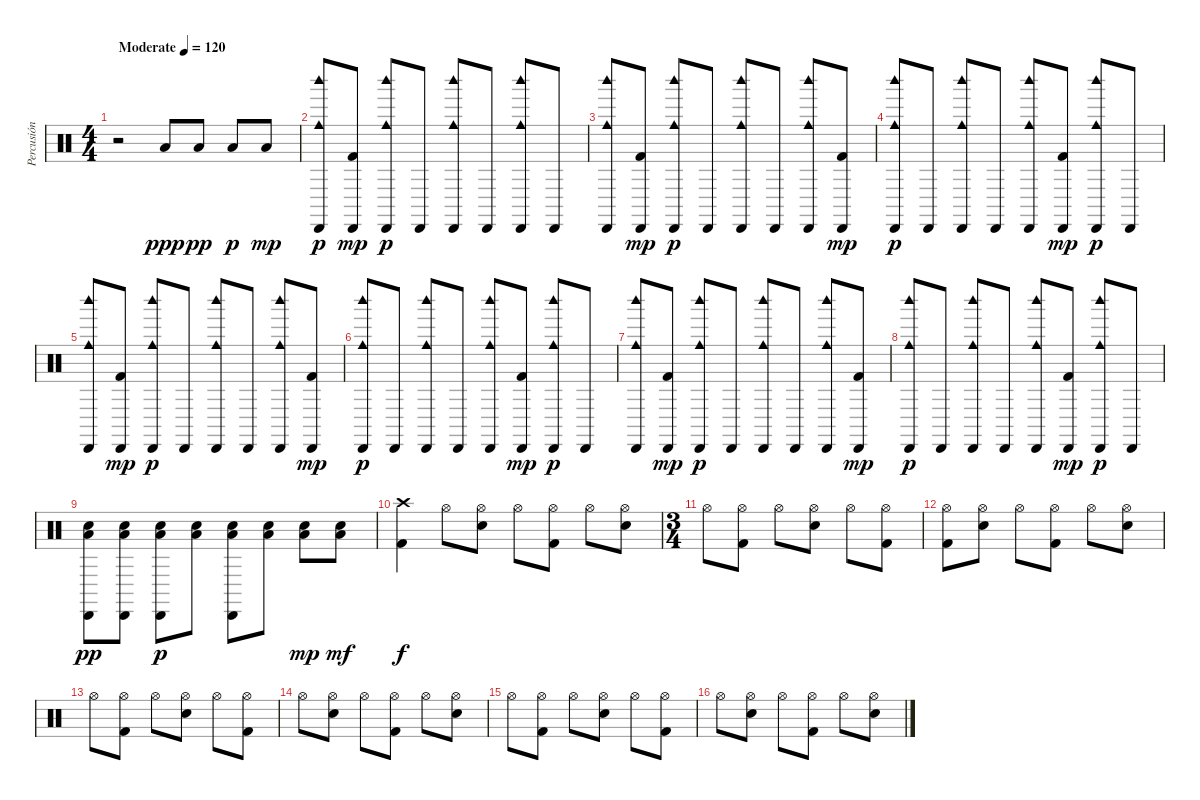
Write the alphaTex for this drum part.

\track ("Percusión" "Percusión") {instrument percussion}
\staff {score}
\articulation defaults
\ts (4 4)
\tempo (120 "Moderate")
\clef neutral
\ks c
r.2{dy ppp} "Low Tom (hit)".8 "Low Tom (hit)".8{dy pp} "Low Tom (hit)".8{dy p} "Low Tom (hit)".8{dy mp} |
("Woodblock high (hit)" "Cowbell medium (hit)" "Cabasa (hit)").8{dy p} ("Cabasa (hit)" "Kick (hit) 2").8{dy mp} ("Woodblock high (hit)" "Cowbell medium (hit)" "Cabasa (hit)").8{dy p} "Cabasa (hit)".8 ("Woodblock high (hit)" "Cowbell medium (hit)" "Cabasa (hit)").8 "Cabasa (hit)".8 ("Woodblock high (hit)" "Cowbell medium (hit)" "Cabasa (hit)").8 "Cabasa (hit)".8 |
("Woodblock high (hit)" "Cowbell medium (hit)" "Cabasa (hit)").8 ("Cabasa (hit)" "Kick (hit) 2").8{dy mp} ("Woodblock high (hit)" "Cowbell medium (hit)" "Cabasa (hit)").8{dy p} "Cabasa (hit)".8 ("Woodblock high (hit)" "Cowbell medium (hit)" "Cabasa (hit)").8 "Cabasa (hit)".8 ("Woodblock high (hit)" "Cowbell medium (hit)" "Cabasa (hit)").8 ("Cabasa (hit)" "Kick (hit) 2").8{dy mp} |
("Woodblock high (hit)" "Cowbell medium (hit)" "Cabasa (hit)").8{dy p} "Cabasa (hit)".8 ("Woodblock high (hit)" "Cowbell medium (hit)" "Cabasa (hit)").8 "Cabasa (hit)".8 ("Woodblock high (hit)" "Cowbell medium (hit)" "Cabasa (hit)").8 ("Cabasa (hit)" "Kick (hit) 2").8{dy mp} ("Woodblock high (hit)" "Cowbell medium (hit)" "Cabasa (hit)").8{dy p} "Cabasa (hit)".8 |
("Woodblock high (hit)" "Cowbell medium (hit)" "Cabasa (hit)").8 ("Cabasa (hit)" "Kick (hit) 2").8{dy mp} ("Woodblock high (hit)" "Cowbell medium (hit)" "Cabasa (hit)").8{dy p} "Cabasa (hit)".8 ("Woodblock high (hit)" "Cowbell medium (hit)" "Cabasa (hit)").8 "Cabasa (hit)".8 ("Woodblock high (hit)" "Cowbell medium (hit)" "Cabasa (hit)").8 ("Cabasa (hit)" "Kick (hit) 2").8{dy mp} |
("Woodblock high (hit)" "Cowbell medium (hit)" "Cabasa (hit)").8{dy p} "Cabasa (hit)".8 ("Woodblock high (hit)" "Cowbell medium (hit)" "Cabasa (hit)").8 "Cabasa (hit)".8 ("Woodblock high (hit)" "Cowbell medium (hit)" "Cabasa (hit)").8 ("Cabasa (hit)" "Kick (hit) 2").8{dy mp} ("Woodblock high (hit)" "Cowbell medium (hit)" "Cabasa (hit)").8{dy p} "Cabasa (hit)".8 |
("Woodblock high (hit)" "Cowbell medium (hit)" "Cabasa (hit)").8 ("Cabasa (hit)" "Kick (hit) 2").8{dy mp} ("Woodblock high (hit)" "Cowbell medium (hit)" "Cabasa (hit)").8{dy p} "Cabasa (hit)".8 ("Woodblock high (hit)" "Cowbell medium (hit)" "Cabasa (hit)").8 "Cabasa (hit)".8 ("Woodblock high (hit)" "Cowbell medium (hit)" "Cabasa (hit)").8 ("Cabasa (hit)" "Kick (hit) 2").8{dy mp} |
("Woodblock high (hit)" "Cowbell medium (hit)" "Cabasa (hit)").8{dy p} "Cabasa (hit)".8 ("Woodblock high (hit)" "Cowbell medium (hit)" "Cabasa (hit)").8 "Cabasa (hit)".8 ("Woodblock high (hit)" "Cowbell medium (hit)" "Cabasa (hit)").8 ("Cabasa (hit)" "Kick (hit) 2").8{dy mp} ("Woodblock high (hit)" "Cowbell medium (hit)" "Cabasa (hit)").8{dy p} "Cabasa (hit)".8 |
("Cabasa (hit)" "Electric Snare (hit)" "Low Tom (hit)").8{dy pp} ("Cabasa (hit)" "Electric Snare (hit)" "Low Tom (hit)").8 ("Cabasa (hit)" "Electric Snare (hit)" "Low Tom (hit)").8{dy p} ("Electric Snare (hit)" "Low Tom (hit)").8 ("Cabasa (hit)" "Electric Snare (hit)" "Low Tom (hit)").8 ("Electric Snare (hit)" "Low Tom (hit)").8 ("Electric Snare (hit)" "Low Tom (hit)").8{dy mp} ("Electric Snare (hit)" "Low Tom (hit)").8{dy mf} |
("Crash high (hit)" "Kick (hit) 2").4{dy f} "Hi-Hat (open)".8 ("Hi-Hat (open)" "Electric Snare (hit)").8 "Hi-Hat (open)".8 ("Hi-Hat (open)" "Kick (hit) 2").8 "Hi-Hat (open)".8 ("Hi-Hat (open)" "Electric Snare (hit)").8 |
\ts (3 4)
"Hi-Hat (open)".8 ("Hi-Hat (open)" "Kick (hit) 2").8 "Hi-Hat (open)".8 ("Hi-Hat (open)" "Electric Snare (hit)").8 "Hi-Hat (open)".8 ("Hi-Hat (open)" "Kick (hit) 2").8 |
("Hi-Hat (open)" "Kick (hit) 2").8 ("Hi-Hat (open)" "Electric Snare (hit)").8 "Hi-Hat (open)".8 ("Hi-Hat (open)" "Kick (hit) 2").8 "Hi-Hat (open)".8 ("Hi-Hat (open)" "Electric Snare (hit)").8 |
"Hi-Hat (open)".8 ("Hi-Hat (open)" "Kick (hit) 2").8 "Hi-Hat (open)".8 ("Hi-Hat (open)" "Electric Snare (hit)").8 "Hi-Hat (open)".8 ("Hi-Hat (open)" "Kick (hit) 2").8 |
"Hi-Hat (open)".8 ("Hi-Hat (open)" "Electric Snare (hit)").8 "Hi-Hat (open)".8 ("Hi-Hat (open)" "Kick (hit) 2").8 "Hi-Hat (open)".8 ("Hi-Hat (open)" "Electric Snare (hit)").8 |
"Hi-Hat (open)".8 ("Hi-Hat (open)" "Kick (hit) 2").8 "Hi-Hat (open)".8 ("Hi-Hat (open)" "Electric Snare (hit)").8 "Hi-Hat (open)".8 ("Hi-Hat (open)" "Kick (hit) 2").8 |
"Hi-Hat (open)".8 ("Hi-Hat (open)" "Electric Snare (hit)").8 "Hi-Hat (open)".8 ("Hi-Hat (open)" "Kick (hit) 2").8 "Hi-Hat (open)".8 ("Hi-Hat (open)" "Electric Snare (hit)").8
